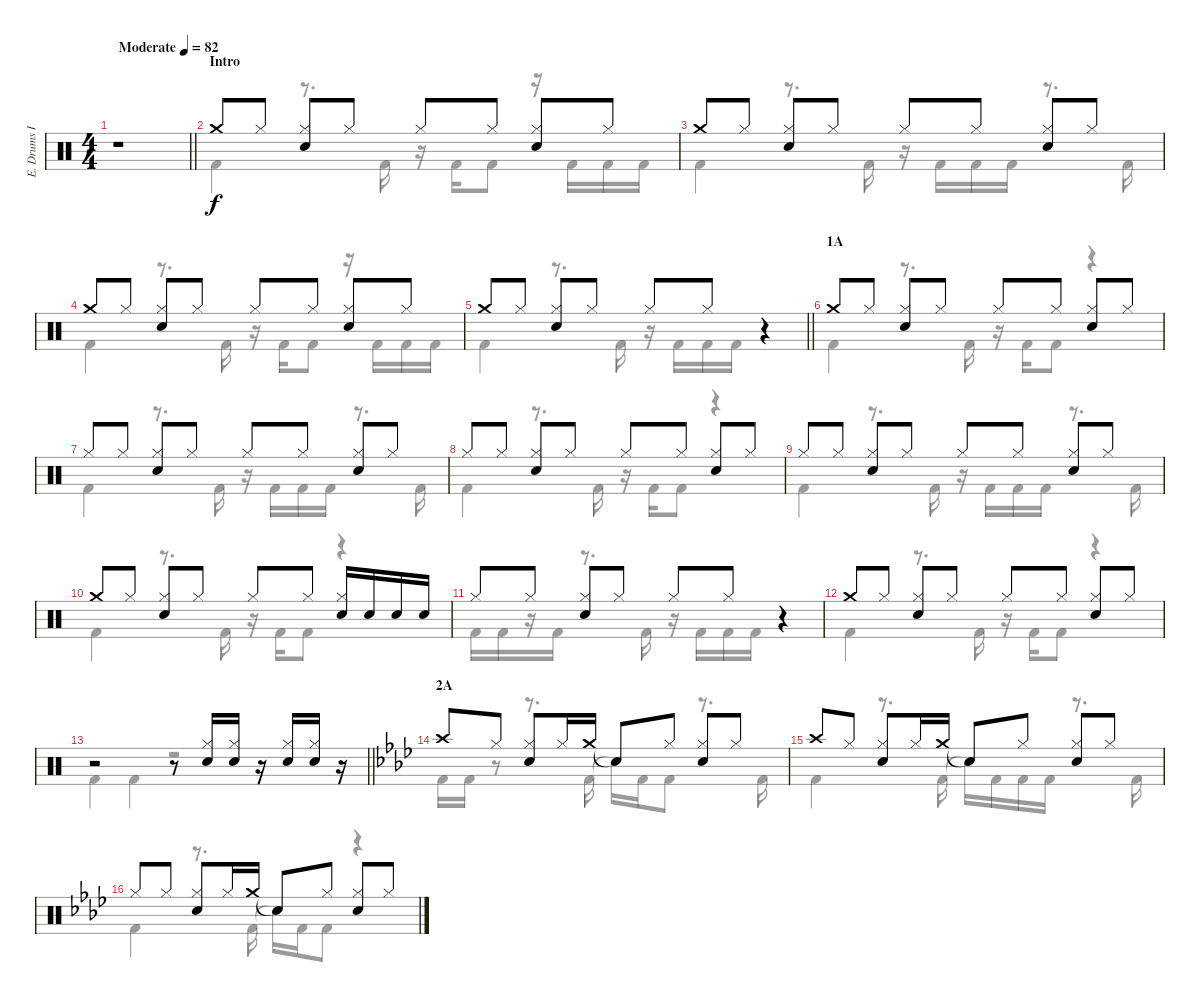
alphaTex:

\track ("E. Drums I" "E. Drums I") {instrument percussion}
\staff {score}
\articulation defaults
\voice
\ts (4 4)
\tempo (82 "Moderate")
\clef neutral
\barLineRight lightlight
\ks c
r.1{dy f} |
\section ("" "Intro")
"Crash medium (hit)".8 "Hi-Hat (closed)".8 ("Hi-Hat (closed)" "Electric Snare (hit)").8 "Hi-Hat (closed)".8 "Hi-Hat (closed)".8 "Hi-Hat (closed)".8 ("Hi-Hat (closed)" "Electric Snare (hit)").8 "Hi-Hat (closed)".8 |
"Crash medium (hit)".8 "Hi-Hat (closed)".8 ("Hi-Hat (closed)" "Electric Snare (hit)").8 "Hi-Hat (closed)".8 "Hi-Hat (closed)".8 "Hi-Hat (closed)".8 ("Hi-Hat (closed)" "Electric Snare (hit)").8 "Hi-Hat (closed)".8 |
"Crash medium (hit)".8 "Hi-Hat (closed)".8 ("Hi-Hat (closed)" "Electric Snare (hit)").8 "Hi-Hat (closed)".8 "Hi-Hat (closed)".8 "Hi-Hat (closed)".8 ("Hi-Hat (closed)" "Electric Snare (hit)").8 "Hi-Hat (closed)".8 |
\barLineRight lightlight "Crash medium (hit)".8 "Hi-Hat (closed)".8
("Hi-Hat (closed)" "Electric Snare (hit)").8 "Hi-Hat (closed)".8 "Hi-Hat (closed)".8 "Hi-Hat (closed)".8 r.4 |
\section ("" "1A")
"Crash medium (hit)".8 "Hi-Hat (closed)".8 ("Hi-Hat (closed)" "Electric Snare (hit)").8 "Hi-Hat (closed)".8 "Hi-Hat (closed)".8 "Hi-Hat (closed)".8 ("Hi-Hat (closed)" "Electric Snare (hit)").8 "Hi-Hat (closed)".8 |
"Hi-Hat (closed)".8 "Hi-Hat (closed)".8 ("Hi-Hat (closed)" "Electric Snare (hit)").8 "Hi-Hat (closed)".8 "Hi-Hat (closed)".8 "Hi-Hat (closed)".8 ("Hi-Hat (closed)" "Electric Snare (hit)").8 "Hi-Hat (closed)".8 |
"Hi-Hat (closed)".8 "Hi-Hat (closed)".8 ("Hi-Hat (closed)" "Electric Snare (hit)").8 "Hi-Hat (closed)".8 "Hi-Hat (closed)".8 "Hi-Hat (closed)".8 ("Hi-Hat (closed)" "Electric Snare (hit)").8 "Hi-Hat (closed)".8 |
"Hi-Hat (closed)".8 "Hi-Hat (closed)".8 ("Hi-Hat (closed)" "Electric Snare (hit)").8 "Hi-Hat (closed)".8 "Hi-Hat (closed)".8 "Hi-Hat (closed)".8 ("Hi-Hat (closed)" "Electric Snare (hit)").8 "Hi-Hat (closed)".8 |
"Crash medium (hit)".8 "Hi-Hat (closed)".8 ("Hi-Hat (closed)" "Electric Snare (hit)").8 "Hi-Hat (closed)".8 "Hi-Hat (closed)".8 "Hi-Hat (closed)".8 ("Hi-Hat (closed)" "Electric Snare (hit)").16 "Electric Snare (hit)".16 "Electric Snare (hit)".16 "Electric Snare (hit)".16 |
"Hi-Hat (closed)".8 "Hi-Hat (closed)".8 ("Hi-Hat (closed)" "Electric Snare (hit)").8 "Hi-Hat (closed)".8 "Hi-Hat (closed)".8 "Hi-Hat (closed)".8 r.4 |
"Crash medium (hit)".8 "Hi-Hat (closed)".8 ("Hi-Hat (closed)" "Electric Snare (hit)").8 "Hi-Hat (closed)".8 "Hi-Hat (closed)".8 "Hi-Hat (closed)".8 ("Hi-Hat (closed)" "Electric Snare (hit)").8 "Hi-Hat (closed)".8 |
\barLineRight lightlight
r.2 r.8 ("Hi-Hat (closed)" "Electric Snare (hit)").16 ("Hi-Hat (closed)" "Electric Snare (hit)").16 r.16 ("Hi-Hat (closed)" "Electric Snare (hit)").16 ("Hi-Hat (closed)" "Electric Snare (hit)").16 r.16 |
\section ("" "2A")
\ks ab "Crash high (hit)".8 "Hi-Hat (closed)".8
("Hi-Hat (closed)" "Electric Snare (hit)").8 "Hi-Hat (closed)".16 "Crash medium (hit)".16 "Snare (hit)"{t}.8 "Hi-Hat (closed)".8 ("Hi-Hat (closed)" "Electric Snare (hit)").8 "Hi-Hat (closed)".8 |
"Crash high (hit)".8 "Hi-Hat (closed)".8 ("Hi-Hat (closed)" "Electric Snare (hit)").8 "Hi-Hat (closed)".16 "Crash medium (hit)".16 "Snare (hit)"{t}.8 "Hi-Hat (closed)".8 ("Hi-Hat (closed)" "Electric Snare (hit)").8 "Hi-Hat (closed)".8 |
"Hi-Hat (closed)".8 "Hi-Hat (closed)".8 ("Hi-Hat (closed)" "Electric Snare (hit)").8 "Hi-Hat (closed)".16 "Crash medium (hit)".16 "Snare (hit)"{t}.8 "Hi-Hat (closed)".8 ("Hi-Hat (closed)" "Electric Snare (hit)").8 "Hi-Hat (closed)".8
\voice
\clef neutral
\ottava regular
\simile none
\barLineRight lightlight
\ks c
r.1{dy f} |
"Kick (hit) 2".4 r.8{d} "Kick (hit) 2".16 r.16 "Kick (hit) 2".16 "Kick (hit) 2".8 r.16 "Kick (hit) 2".16 "Kick (hit) 2".16 "Kick (hit) 2".16 |
"Kick (hit) 2".4 r.8{d} "Kick (hit) 2".16 r.16 "Kick (hit) 2".16 "Kick (hit) 2".16 "Kick (hit) 2".16 r.8{d} "Kick (hit) 2".16 |
"Kick (hit) 2".4 r.8{d} "Kick (hit) 2".16 r.16 "Kick (hit) 2".16 "Kick (hit) 2".8 r.16 "Kick (hit) 2".16 "Kick (hit) 2".16 "Kick (hit) 2".16 |
\barLineRight lightlight "Kick (hit) 2".4
r.8{d} "Kick (hit) 2".16 r.16 "Kick (hit) 2".16 "Kick (hit) 2".16 "Kick (hit) 2".16 r.4 |
"Kick (hit) 2".4 r.8{d} "Kick (hit) 2".16 r.16 "Kick (hit) 2".16 "Kick (hit) 2".8 r.4 |
"Kick (hit) 2".4 r.8{d} "Kick (hit) 2".16 r.16 "Kick (hit) 2".16 "Kick (hit) 2".16 "Kick (hit) 2".16 r.8{d} "Kick (hit) 2".16 |
"Kick (hit) 2".4 r.8{d} "Kick (hit) 2".16 r.16 "Kick (hit) 2".16 "Kick (hit) 2".8 r.4 |
"Kick (hit) 2".4 r.8{d} "Kick (hit) 2".16 r.16 "Kick (hit) 2".16 "Kick (hit) 2".16 "Kick (hit) 2".16 r.8{d} "Kick (hit) 2".16 |
"Kick (hit) 2".4 r.8{d} "Kick (hit) 2".16 r.16 "Kick (hit) 2".16 "Kick (hit) 2".8 r.4 |
"Kick (hit) 2".16 "Kick (hit) 2".16 r.16 "Kick (hit) 2".16 r.8{d} "Kick (hit) 2".16 r.16 "Kick (hit) 2".16 "Kick (hit) 2".16 "Kick (hit) 2".16 r.4 |
"Kick (hit) 2".4 r.8{d} "Kick (hit) 2".16 r.16 "Kick (hit) 2".16 "Kick (hit) 2".8 r.4 |
\barLineRight lightlight "Kick (hit) 2".4 "Kick (hit) 2".4
r.2 |
\ks ab "Kick (hit) 2".16 "Kick (hit) 2".16
r.8 r.8{d} "Kick (hit) 2".16 "Snare (hit)"{t}.16 "Kick (hit) 2".16 "Kick (hit) 2".8 r.8{d} "Kick (hit) 2".16 |
"Kick (hit) 2".4 r.8{d} "Kick (hit) 2".16 "Snare (hit)"{t}.16 "Kick (hit) 2".16 "Kick (hit) 2".16 "Kick (hit) 2".16 r.8{d} "Kick (hit) 2".16 |
"Kick (hit) 2".4 r.8{d} "Kick (hit) 2".16 "Snare (hit)"{t}.16 "Kick (hit) 2".16 "Kick (hit) 2".8 r.4
